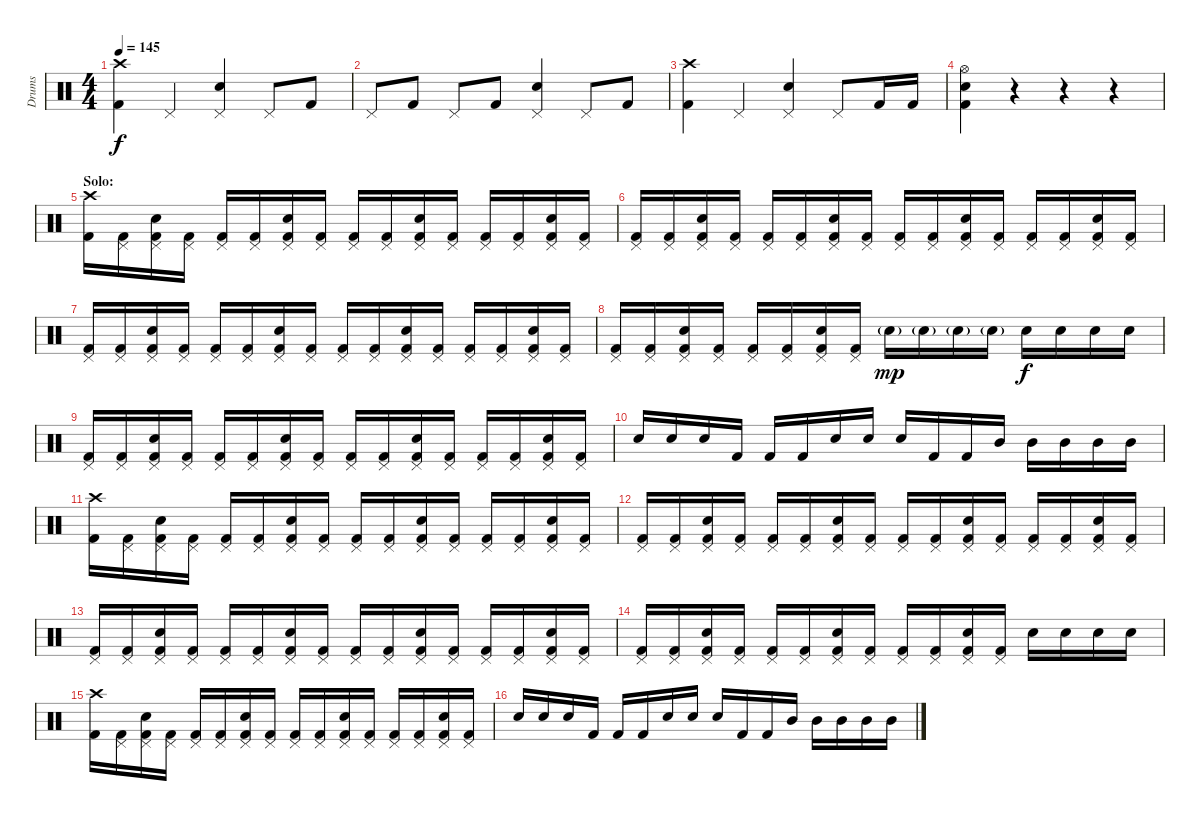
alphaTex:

\track ("Drums" "Drums") {instrument percussion}
\staff {score}
\articulation defaults
\ts (4 4)
\tempo 145
\clef neutral
\ks c
("Crash high (hit)" "Kick (hit) 2").4{dy f} "Pedal Hi-Hat (hit)".4 ("Pedal Hi-Hat (hit)" "Electric Snare (hit)").4 "Pedal Hi-Hat (hit)".8 "Kick (hit) 2".8 |
"Pedal Hi-Hat (hit)".8 "Kick (hit) 2".8 "Pedal Hi-Hat (hit)".8 "Kick (hit) 2".8 ("Pedal Hi-Hat (hit)" "Electric Snare (hit)").4 "Pedal Hi-Hat (hit)".8 "Kick (hit) 2".8 |
("Crash high (hit)" "Kick (hit) 2").4 "Pedal Hi-Hat (hit)".4 ("Pedal Hi-Hat (hit)" "Electric Snare (hit)").4 "Pedal Hi-Hat (hit)".8 "Kick (hit) 2".16 "Kick (hit) 2".16 |
("Hi-Hat (open)" "Electric Snare (hit)" "Kick (hit) 2").4 r.4 r.4 r.4 |
\section ("" "Solo:")
("Crash high (hit)" "Kick (hit) 2").16 ("Pedal Hi-Hat (hit)" "Kick (hit) 2").16 ("Pedal Hi-Hat (hit)" "Electric Snare (hit)" "Kick (hit) 2").16 ("Pedal Hi-Hat (hit)" "Kick (hit) 2").16 ("Pedal Hi-Hat (hit)" "Kick (hit) 2").16 ("Pedal Hi-Hat (hit)" "Kick (hit) 2").16 ("Pedal Hi-Hat (hit)" "Electric Snare (hit)" "Kick (hit) 2").16 ("Pedal Hi-Hat (hit)" "Kick (hit) 2").16 ("Pedal Hi-Hat (hit)" "Kick (hit) 2").16 ("Pedal Hi-Hat (hit)" "Kick (hit) 2").16 ("Pedal Hi-Hat (hit)" "Electric Snare (hit)" "Kick (hit) 2").16 ("Pedal Hi-Hat (hit)" "Kick (hit) 2").16 ("Pedal Hi-Hat (hit)" "Kick (hit) 2").16 ("Pedal Hi-Hat (hit)" "Kick (hit) 2").16 ("Pedal Hi-Hat (hit)" "Electric Snare (hit)" "Kick (hit) 2").16 ("Pedal Hi-Hat (hit)" "Kick (hit) 2").16 |
("Pedal Hi-Hat (hit)" "Kick (hit) 2").16 ("Pedal Hi-Hat (hit)" "Kick (hit) 2").16 ("Pedal Hi-Hat (hit)" "Electric Snare (hit)" "Kick (hit) 2").16 ("Pedal Hi-Hat (hit)" "Kick (hit) 2").16 ("Pedal Hi-Hat (hit)" "Kick (hit) 2").16 ("Pedal Hi-Hat (hit)" "Kick (hit) 2").16 ("Pedal Hi-Hat (hit)" "Electric Snare (hit)" "Kick (hit) 2").16 ("Pedal Hi-Hat (hit)" "Kick (hit) 2").16 ("Pedal Hi-Hat (hit)" "Kick (hit) 2").16 ("Pedal Hi-Hat (hit)" "Kick (hit) 2").16 ("Pedal Hi-Hat (hit)" "Electric Snare (hit)" "Kick (hit) 2").16 ("Pedal Hi-Hat (hit)" "Kick (hit) 2").16 ("Pedal Hi-Hat (hit)" "Kick (hit) 2").16 ("Pedal Hi-Hat (hit)" "Kick (hit) 2").16 ("Pedal Hi-Hat (hit)" "Electric Snare (hit)" "Kick (hit) 2").16 ("Pedal Hi-Hat (hit)" "Kick (hit) 2").16 |
("Pedal Hi-Hat (hit)" "Kick (hit) 2").16 ("Pedal Hi-Hat (hit)" "Kick (hit) 2").16 ("Pedal Hi-Hat (hit)" "Electric Snare (hit)" "Kick (hit) 2").16 ("Pedal Hi-Hat (hit)" "Kick (hit) 2").16 ("Pedal Hi-Hat (hit)" "Kick (hit) 2").16 ("Pedal Hi-Hat (hit)" "Kick (hit) 2").16 ("Pedal Hi-Hat (hit)" "Electric Snare (hit)" "Kick (hit) 2").16 ("Pedal Hi-Hat (hit)" "Kick (hit) 2").16 ("Pedal Hi-Hat (hit)" "Kick (hit) 2").16 ("Pedal Hi-Hat (hit)" "Kick (hit) 2").16 ("Pedal Hi-Hat (hit)" "Electric Snare (hit)" "Kick (hit) 2").16 ("Pedal Hi-Hat (hit)" "Kick (hit) 2").16 ("Pedal Hi-Hat (hit)" "Kick (hit) 2").16 ("Pedal Hi-Hat (hit)" "Kick (hit) 2").16 ("Pedal Hi-Hat (hit)" "Electric Snare (hit)" "Kick (hit) 2").16 ("Pedal Hi-Hat (hit)" "Kick (hit) 2").16 |
("Pedal Hi-Hat (hit)" "Kick (hit) 2").16 ("Pedal Hi-Hat (hit)" "Kick (hit) 2").16 ("Pedal Hi-Hat (hit)" "Electric Snare (hit)" "Kick (hit) 2").16 ("Pedal Hi-Hat (hit)" "Kick (hit) 2").16 ("Pedal Hi-Hat (hit)" "Kick (hit) 2").16 ("Pedal Hi-Hat (hit)" "Kick (hit) 2").16 ("Pedal Hi-Hat (hit)" "Electric Snare (hit)" "Kick (hit) 2").16 ("Pedal Hi-Hat (hit)" "Kick (hit) 2").16 "Electric Snare (hit)"{g}.16{dy mp} "Electric Snare (hit)"{g}.16 "Electric Snare (hit)"{g}.16 "Electric Snare (hit)"{g}.16 "Electric Snare (hit)".16{dy f} "Electric Snare (hit)".16 "Electric Snare (hit)".16 "Electric Snare (hit)".16 |
("Pedal Hi-Hat (hit)" "Kick (hit) 2").16 ("Pedal Hi-Hat (hit)" "Kick (hit) 2").16 ("Pedal Hi-Hat (hit)" "Electric Snare (hit)" "Kick (hit) 2").16 ("Pedal Hi-Hat (hit)" "Kick (hit) 2").16 ("Pedal Hi-Hat (hit)" "Kick (hit) 2").16 ("Pedal Hi-Hat (hit)" "Kick (hit) 2").16 ("Pedal Hi-Hat (hit)" "Electric Snare (hit)" "Kick (hit) 2").16 ("Pedal Hi-Hat (hit)" "Kick (hit) 2").16 ("Pedal Hi-Hat (hit)" "Kick (hit) 2").16 ("Pedal Hi-Hat (hit)" "Kick (hit) 2").16 ("Pedal Hi-Hat (hit)" "Electric Snare (hit)" "Kick (hit) 2").16 ("Pedal Hi-Hat (hit)" "Kick (hit) 2").16 ("Pedal Hi-Hat (hit)" "Kick (hit) 2").16 ("Pedal Hi-Hat (hit)" "Kick (hit) 2").16 ("Pedal Hi-Hat (hit)" "Electric Snare (hit)" "Kick (hit) 2").16 ("Pedal Hi-Hat (hit)" "Kick (hit) 2").16 |
"Electric Snare (hit)".16 "Electric Snare (hit)".16 "Electric Snare (hit)".16 "Kick (hit) 2".16 "Kick (hit) 2".16 "Kick (hit) 2".16 "Electric Snare (hit)".16 "Electric Snare (hit)".16 "Electric Snare (hit)".16 "Kick (hit) 2".16 "Kick (hit) 2".16 "Mid Tom (hit)".16 "Mid Tom (hit)".16 "Mid Tom (hit)".16 "Mid Tom (hit)".16 "Mid Tom (hit)".16 |
("Crash high (hit)" "Kick (hit) 2").16 ("Pedal Hi-Hat (hit)" "Kick (hit) 2").16 ("Pedal Hi-Hat (hit)" "Electric Snare (hit)" "Kick (hit) 2").16 ("Pedal Hi-Hat (hit)" "Kick (hit) 2").16 ("Pedal Hi-Hat (hit)" "Kick (hit) 2").16 ("Pedal Hi-Hat (hit)" "Kick (hit) 2").16 ("Pedal Hi-Hat (hit)" "Electric Snare (hit)" "Kick (hit) 2").16 ("Pedal Hi-Hat (hit)" "Kick (hit) 2").16 ("Pedal Hi-Hat (hit)" "Kick (hit) 2").16 ("Pedal Hi-Hat (hit)" "Kick (hit) 2").16 ("Pedal Hi-Hat (hit)" "Electric Snare (hit)" "Kick (hit) 2").16 ("Pedal Hi-Hat (hit)" "Kick (hit) 2").16 ("Pedal Hi-Hat (hit)" "Kick (hit) 2").16 ("Pedal Hi-Hat (hit)" "Kick (hit) 2").16 ("Pedal Hi-Hat (hit)" "Electric Snare (hit)" "Kick (hit) 2").16 ("Pedal Hi-Hat (hit)" "Kick (hit) 2").16 |
("Pedal Hi-Hat (hit)" "Kick (hit) 2").16 ("Pedal Hi-Hat (hit)" "Kick (hit) 2").16 ("Pedal Hi-Hat (hit)" "Electric Snare (hit)" "Kick (hit) 2").16 ("Pedal Hi-Hat (hit)" "Kick (hit) 2").16 ("Pedal Hi-Hat (hit)" "Kick (hit) 2").16 ("Pedal Hi-Hat (hit)" "Kick (hit) 2").16 ("Pedal Hi-Hat (hit)" "Electric Snare (hit)" "Kick (hit) 2").16 ("Pedal Hi-Hat (hit)" "Kick (hit) 2").16 ("Pedal Hi-Hat (hit)" "Kick (hit) 2").16 ("Pedal Hi-Hat (hit)" "Kick (hit) 2").16 ("Pedal Hi-Hat (hit)" "Electric Snare (hit)" "Kick (hit) 2").16 ("Pedal Hi-Hat (hit)" "Kick (hit) 2").16 ("Pedal Hi-Hat (hit)" "Kick (hit) 2").16 ("Pedal Hi-Hat (hit)" "Kick (hit) 2").16 ("Pedal Hi-Hat (hit)" "Electric Snare (hit)" "Kick (hit) 2").16 ("Pedal Hi-Hat (hit)" "Kick (hit) 2").16 |
("Pedal Hi-Hat (hit)" "Kick (hit) 2").16 ("Pedal Hi-Hat (hit)" "Kick (hit) 2").16 ("Pedal Hi-Hat (hit)" "Electric Snare (hit)" "Kick (hit) 2").16 ("Pedal Hi-Hat (hit)" "Kick (hit) 2").16 ("Pedal Hi-Hat (hit)" "Kick (hit) 2").16 ("Pedal Hi-Hat (hit)" "Kick (hit) 2").16 ("Pedal Hi-Hat (hit)" "Electric Snare (hit)" "Kick (hit) 2").16 ("Pedal Hi-Hat (hit)" "Kick (hit) 2").16 ("Pedal Hi-Hat (hit)" "Kick (hit) 2").16 ("Pedal Hi-Hat (hit)" "Kick (hit) 2").16 ("Pedal Hi-Hat (hit)" "Electric Snare (hit)" "Kick (hit) 2").16 ("Pedal Hi-Hat (hit)" "Kick (hit) 2").16 ("Pedal Hi-Hat (hit)" "Kick (hit) 2").16 ("Pedal Hi-Hat (hit)" "Kick (hit) 2").16 ("Pedal Hi-Hat (hit)" "Electric Snare (hit)" "Kick (hit) 2").16 ("Pedal Hi-Hat (hit)" "Kick (hit) 2").16 |
("Pedal Hi-Hat (hit)" "Kick (hit) 2").16 ("Pedal Hi-Hat (hit)" "Kick (hit) 2").16 ("Pedal Hi-Hat (hit)" "Electric Snare (hit)" "Kick (hit) 2").16 ("Pedal Hi-Hat (hit)" "Kick (hit) 2").16 ("Pedal Hi-Hat (hit)" "Kick (hit) 2").16 ("Pedal Hi-Hat (hit)" "Kick (hit) 2").16 ("Pedal Hi-Hat (hit)" "Electric Snare (hit)" "Kick (hit) 2").16 ("Pedal Hi-Hat (hit)" "Kick (hit) 2").16 ("Pedal Hi-Hat (hit)" "Kick (hit) 2").16 ("Pedal Hi-Hat (hit)" "Kick (hit) 2").16 ("Pedal Hi-Hat (hit)" "Electric Snare (hit)" "Kick (hit) 2").16 ("Pedal Hi-Hat (hit)" "Kick (hit) 2").16 "Electric Snare (hit)".16 "Electric Snare (hit)".16 "Electric Snare (hit)".16 "Electric Snare (hit)".16 |
("Crash high (hit)" "Kick (hit) 2").16 ("Pedal Hi-Hat (hit)" "Kick (hit) 2").16 ("Pedal Hi-Hat (hit)" "Electric Snare (hit)" "Kick (hit) 2").16 ("Pedal Hi-Hat (hit)" "Kick (hit) 2").16 ("Pedal Hi-Hat (hit)" "Kick (hit) 2").16 ("Pedal Hi-Hat (hit)" "Kick (hit) 2").16 ("Pedal Hi-Hat (hit)" "Electric Snare (hit)" "Kick (hit) 2").16 ("Pedal Hi-Hat (hit)" "Kick (hit) 2").16 ("Pedal Hi-Hat (hit)" "Kick (hit) 2").16 ("Pedal Hi-Hat (hit)" "Kick (hit) 2").16 ("Pedal Hi-Hat (hit)" "Electric Snare (hit)" "Kick (hit) 2").16 ("Pedal Hi-Hat (hit)" "Kick (hit) 2").16 ("Pedal Hi-Hat (hit)" "Kick (hit) 2").16 ("Pedal Hi-Hat (hit)" "Kick (hit) 2").16 ("Pedal Hi-Hat (hit)" "Electric Snare (hit)" "Kick (hit) 2").16 ("Pedal Hi-Hat (hit)" "Kick (hit) 2").16 |
"Electric Snare (hit)".16 "Electric Snare (hit)".16 "Electric Snare (hit)".16 "Kick (hit) 2".16 "Kick (hit) 2".16 "Kick (hit) 2".16 "Electric Snare (hit)".16 "Electric Snare (hit)".16 "Electric Snare (hit)".16 "Kick (hit) 2".16 "Kick (hit) 2".16 "Mid Tom (hit)".16 "Mid Tom (hit)".16 "Mid Tom (hit)".16 "Mid Tom (hit)".16 "Mid Tom (hit)".16
